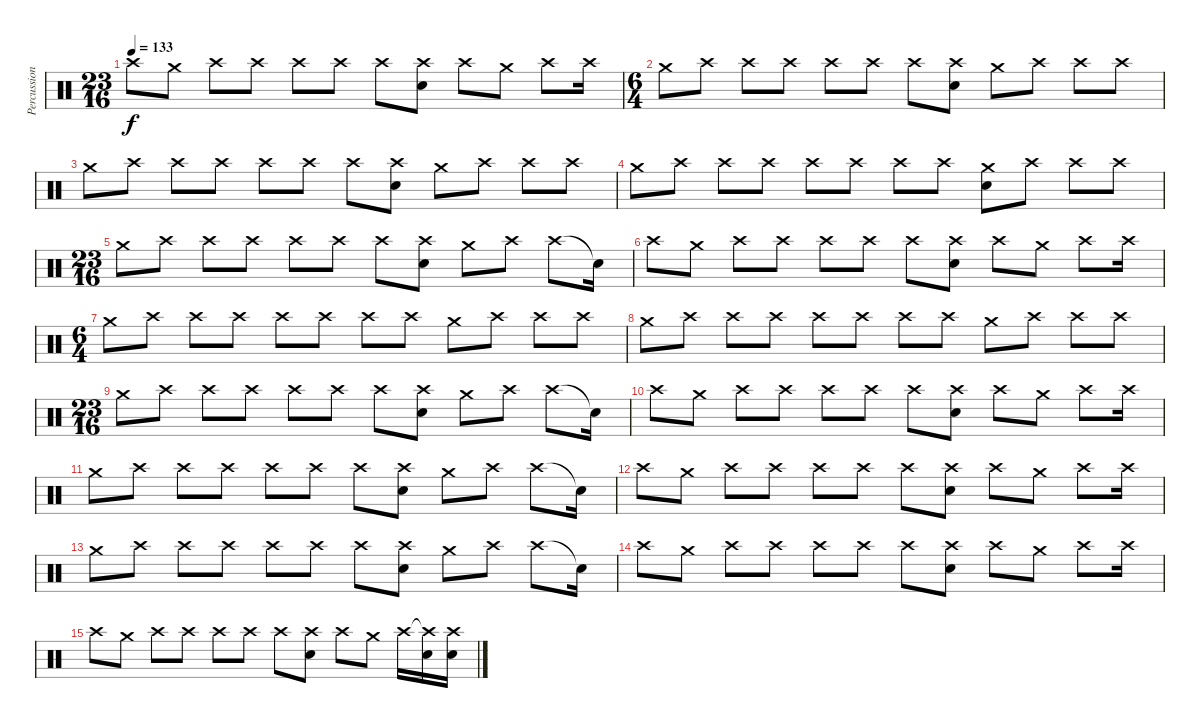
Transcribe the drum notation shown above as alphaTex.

\track ("Percussion" "Percussion") {instrument percussion}
\staff {score}
\articulation defaults
\ts (23 16)
\tempo 133
\clef neutral
\ks c "Crash high (hit)".8{dy f} "Crash medium (hit)".8 "Crash high (hit)".8 "Crash high (hit)".8 "Crash high (hit)".8 "Crash high (hit)".8 "Crash high (hit)".8
("Crash high (hit)" "Electric Snare (hit)").8 "Crash high (hit)".8 "Crash medium (hit)".8 "Crash high (hit)".8 "Crash high (hit)".16 |
\ts (6 4)
"Crash medium (hit)".8 "Crash high (hit)".8 "Crash high (hit)".8 "Crash high (hit)".8 "Crash high (hit)".8 "Crash high (hit)".8 "Crash high (hit)".8 ("Crash high (hit)" "Electric Snare (hit)").8 "Crash medium (hit)".8 "Crash high (hit)".8 "Crash high (hit)".8 "Crash high (hit)".8 |
"Crash medium (hit)".8 "Crash high (hit)".8 "Crash high (hit)".8 "Crash high (hit)".8 "Crash high (hit)".8 "Crash high (hit)".8 "Crash high (hit)".8 ("Crash high (hit)" "Electric Snare (hit)").8 "Crash medium (hit)".8 "Crash high (hit)".8 "Crash high (hit)".8 "Crash high (hit)".8 |
"Crash medium (hit)".8 "Crash high (hit)".8 "Crash high (hit)".8 "Crash high (hit)".8 "Crash high (hit)".8 "Crash high (hit)".8 "Crash high (hit)".8 "Crash high (hit)".8 ("Crash medium (hit)" "Electric Snare (hit)").8 "Crash high (hit)".8 "Crash high (hit)".8 "Crash high (hit)".8 |
\ts (23 16)
"Crash medium (hit)".8 "Crash high (hit)".8 "Crash high (hit)".8 "Crash high (hit)".8 "Crash high (hit)".8 "Crash high (hit)".8 "Crash high (hit)".8 ("Crash high (hit)" "Electric Snare (hit)").8 "Crash medium (hit)".8 "Crash high (hit)".8 "Crash high (hit)".8 "Snare (hit)"{t}.16 |
"Crash high (hit)".8 "Crash medium (hit)".8 "Crash high (hit)".8 "Crash high (hit)".8 "Crash high (hit)".8 "Crash high (hit)".8 "Crash high (hit)".8 ("Crash high (hit)" "Electric Snare (hit)").8 "Crash high (hit)".8 "Crash medium (hit)".8 "Crash high (hit)".8 "Crash high (hit)".16 |
\ts (6 4)
"Crash medium (hit)".8 "Crash high (hit)".8 "Crash high (hit)".8 "Crash high (hit)".8 "Crash high (hit)".8 "Crash high (hit)".8 "Crash high (hit)".8 "Crash high (hit)".8 "Crash medium (hit)".8 "Crash high (hit)".8 "Crash high (hit)".8 "Crash high (hit)".8 |
"Crash medium (hit)".8 "Crash high (hit)".8 "Crash high (hit)".8 "Crash high (hit)".8 "Crash high (hit)".8 "Crash high (hit)".8 "Crash high (hit)".8 "Crash high (hit)".8 "Crash medium (hit)".8 "Crash high (hit)".8 "Crash high (hit)".8 "Crash high (hit)".8 |
\ts (23 16)
"Crash medium (hit)".8 "Crash high (hit)".8 "Crash high (hit)".8 "Crash high (hit)".8 "Crash high (hit)".8 "Crash high (hit)".8 "Crash high (hit)".8 ("Crash high (hit)" "Electric Snare (hit)").8 "Crash medium (hit)".8 "Crash high (hit)".8 "Crash high (hit)".8 "Snare (hit)"{t}.16 |
"Crash high (hit)".8 "Crash medium (hit)".8 "Crash high (hit)".8 "Crash high (hit)".8 "Crash high (hit)".8 "Crash high (hit)".8 "Crash high (hit)".8 ("Crash high (hit)" "Electric Snare (hit)").8 "Crash high (hit)".8 "Crash medium (hit)".8 "Crash high (hit)".8 "Crash high (hit)".16 |
"Crash medium (hit)".8 "Crash high (hit)".8 "Crash high (hit)".8 "Crash high (hit)".8 "Crash high (hit)".8 "Crash high (hit)".8 "Crash high (hit)".8 ("Crash high (hit)" "Electric Snare (hit)").8 "Crash medium (hit)".8 "Crash high (hit)".8 "Crash high (hit)".8 "Snare (hit)"{t}.16 |
"Crash high (hit)".8 "Crash medium (hit)".8 "Crash high (hit)".8 "Crash high (hit)".8 "Crash high (hit)".8 "Crash high (hit)".8 "Crash high (hit)".8 ("Crash high (hit)" "Electric Snare (hit)").8 "Crash high (hit)".8 "Crash medium (hit)".8 "Crash high (hit)".8 "Crash high (hit)".16 |
"Crash medium (hit)".8 "Crash high (hit)".8 "Crash high (hit)".8 "Crash high (hit)".8 "Crash high (hit)".8 "Crash high (hit)".8 "Crash high (hit)".8 ("Crash high (hit)" "Electric Snare (hit)").8 "Crash medium (hit)".8 "Crash high (hit)".8 "Crash high (hit)".8 "Snare (hit)"{t}.16 |
"Crash high (hit)".8 "Crash medium (hit)".8 "Crash high (hit)".8 "Crash high (hit)".8 "Crash high (hit)".8 "Crash high (hit)".8 "Crash high (hit)".8 ("Crash high (hit)" "Electric Snare (hit)").8 "Crash high (hit)".8 "Crash medium (hit)".8 "Crash high (hit)".8 "Crash high (hit)".16 |
"Crash high (hit)".8 "Crash medium (hit)".8 "Crash high (hit)".8 "Crash high (hit)".8 "Crash high (hit)".8 "Crash high (hit)".8 "Crash high (hit)".8 ("Crash high (hit)" "Electric Snare (hit)").8 "Crash high (hit)".8 "Crash medium (hit)".8 "Crash high (hit)".16 ("Crash high (hit)"{t} "Electric Snare (hit)").16 ("Crash high (hit)" "Electric Snare (hit)").16
